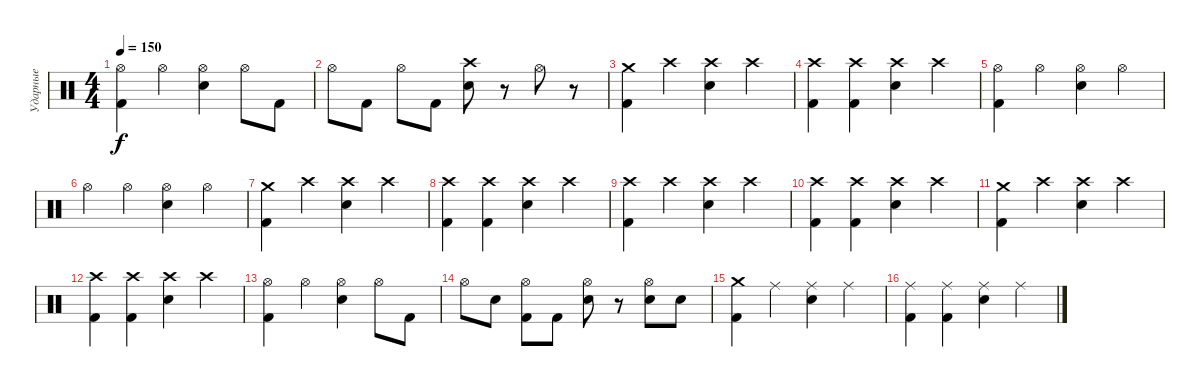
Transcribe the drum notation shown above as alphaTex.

\track ("Ударные" "Ударные") {instrument percussion}
\staff {score}
\articulation defaults
\ts (4 4)
\tempo 150
\clef neutral
\ks c
("Hi-Hat (open)" "Kick (hit) 2").4{dy f} "Hi-Hat (open)".4 ("Hi-Hat (open)" "Electric Snare (hit)").4 "Hi-Hat (open)".8 "Kick (hit) 2".8 |
"Hi-Hat (open)".8 "Kick (hit) 2".8 "Hi-Hat (open)".8 "Kick (hit) 2".8 ("Crash high (hit)" "Electric Snare (hit)").8 r.8 "Hi-Hat (open)".8 r.8 |
("Crash medium (hit)" "Kick (hit) 2").4 "Crash high (hit)".4 ("Crash high (hit)" "Electric Snare (hit)").4 "Crash high (hit)".4 |
("Crash high (hit)" "Kick (hit) 2").4 ("Crash high (hit)" "Kick (hit) 2").4 ("Crash high (hit)" "Electric Snare (hit)").4 "Crash high (hit)".4 |
("Hi-Hat (open)" "Kick (hit) 2").4 "Hi-Hat (open)".4 ("Hi-Hat (open)" "Electric Snare (hit)").4 "Hi-Hat (open)".4 |
"Hi-Hat (open)".4 "Hi-Hat (open)".4 ("Hi-Hat (open)" "Electric Snare (hit)").4 "Hi-Hat (open)".4 |
("Crash medium (hit)" "Kick (hit) 2").4 "Crash high (hit)".4 ("Crash high (hit)" "Electric Snare (hit)").4 "Crash high (hit)".4 |
("Crash high (hit)" "Kick (hit) 2").4 ("Crash high (hit)" "Kick (hit) 2").4 ("Crash high (hit)" "Electric Snare (hit)").4 "Crash high (hit)".4 |
("Crash high (hit)" "Kick (hit) 2").4 "Crash high (hit)".4 ("Crash high (hit)" "Electric Snare (hit)").4 "Crash high (hit)".4 |
("Crash high (hit)" "Kick (hit) 2").4 ("Crash high (hit)" "Kick (hit) 2").4 ("Crash high (hit)" "Electric Snare (hit)").4 "Crash high (hit)".4 |
("Crash medium (hit)" "Kick (hit) 2").4 "Crash high (hit)".4 ("Crash high (hit)" "Electric Snare (hit)").4 "Crash high (hit)".4 |
("Crash high (hit)" "Kick (hit) 2").4 ("Crash high (hit)" "Kick (hit) 2").4 ("Crash high (hit)" "Electric Snare (hit)").4 "Crash high (hit)".4 |
("Hi-Hat (open)" "Kick (hit) 2").4 "Hi-Hat (open)".4 ("Hi-Hat (open)" "Electric Snare (hit)").4 "Hi-Hat (open)".8 "Kick (hit) 2".8 |
"Hi-Hat (open)".8 "Electric Snare (hit)".8 ("Hi-Hat (open)" "Kick (hit) 2").8 "Kick (hit) 2".8 ("Hi-Hat (open)" "Electric Snare (hit)").8 r.8 ("Hi-Hat (open)" "Electric Snare (hit)").8 "Electric Snare (hit)".8 |
("Crash medium (hit)" "Kick (hit) 2").4 "Ride (middle)".4 ("Ride (middle)" "Electric Snare (hit)").4 "Ride (middle)".4 |
("Ride (middle)" "Kick (hit) 2").4 ("Ride (middle)" "Kick (hit) 2").4 ("Ride (middle)" "Electric Snare (hit)").4 "Ride (middle)".4
